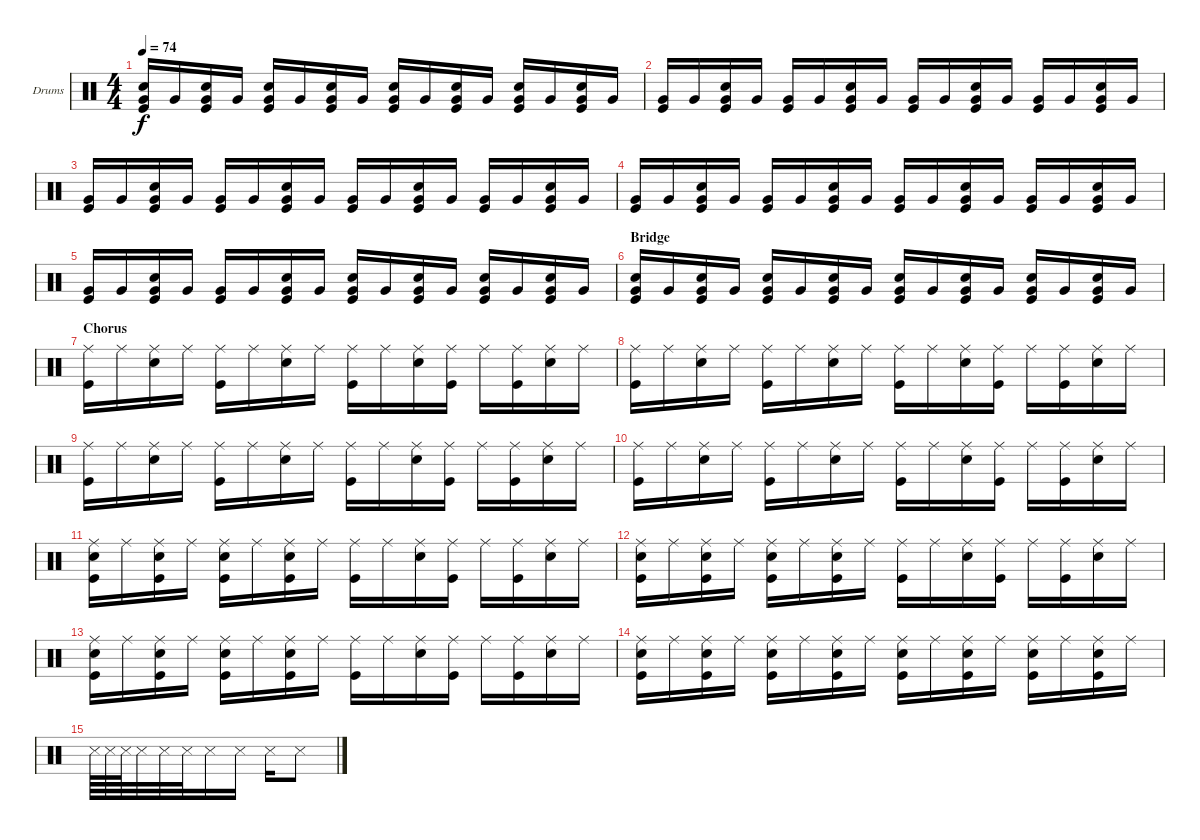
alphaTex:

\bracketExtendMode groupsimilarinstruments
\firstSystemTrackNameOrientation horizontal
\otherSystemsTrackNameOrientation horizontal
\track ("Fabrizio" "Drums") {instrument percussion}
\staff {score}
\articulation defaults
\ts (4 4)
\tempo 74
\clef neutral
\ks c
("Very Low Tom (hit)" "Kick (hit)" "Snare (hit) 2").16{dy f} "Very Low Tom (hit)".16 ("Very Low Tom (hit)" "Kick (hit)" "Snare (hit) 2").16 "Very Low Tom (hit)".16 ("Very Low Tom (hit)" "Kick (hit)" "Snare (hit) 2").16 "Very Low Tom (hit)".16 ("Very Low Tom (hit)" "Kick (hit)" "Snare (hit) 2").16 "Very Low Tom (hit)".16 ("Very Low Tom (hit)" "Kick (hit)" "Snare (hit) 2").16 "Very Low Tom (hit)".16 ("Very Low Tom (hit)" "Kick (hit)" "Snare (hit) 2").16 "Very Low Tom (hit)".16 ("Very Low Tom (hit)" "Kick (hit)" "Snare (hit) 2").16 "Very Low Tom (hit)".16 ("Very Low Tom (hit)" "Kick (hit)" "Snare (hit) 2").16 "Very Low Tom (hit)".16 |
("Very Low Tom (hit)" "Kick (hit)").16 "Very Low Tom (hit)".16 ("Very Low Tom (hit)" "Kick (hit)" "Snare (hit) 2").16 "Very Low Tom (hit)".16 ("Very Low Tom (hit)" "Kick (hit)").16 "Very Low Tom (hit)".16 ("Very Low Tom (hit)" "Kick (hit)" "Snare (hit) 2").16 "Very Low Tom (hit)".16 ("Very Low Tom (hit)" "Kick (hit)").16 "Very Low Tom (hit)".16 ("Very Low Tom (hit)" "Kick (hit)" "Snare (hit) 2").16 "Very Low Tom (hit)".16 ("Very Low Tom (hit)" "Kick (hit)").16 "Very Low Tom (hit)".16 ("Very Low Tom (hit)" "Kick (hit)" "Snare (hit) 2").16 "Very Low Tom (hit)".16 |
("Very Low Tom (hit)" "Kick (hit)").16 "Very Low Tom (hit)".16 ("Very Low Tom (hit)" "Kick (hit)" "Snare (hit) 2").16 "Very Low Tom (hit)".16 ("Very Low Tom (hit)" "Kick (hit)").16 "Very Low Tom (hit)".16 ("Very Low Tom (hit)" "Kick (hit)" "Snare (hit) 2").16 "Very Low Tom (hit)".16 ("Very Low Tom (hit)" "Kick (hit)").16 "Very Low Tom (hit)".16 ("Very Low Tom (hit)" "Kick (hit)" "Snare (hit) 2").16 "Very Low Tom (hit)".16 ("Very Low Tom (hit)" "Kick (hit)").16 "Very Low Tom (hit)".16 ("Very Low Tom (hit)" "Kick (hit)" "Snare (hit) 2").16 "Very Low Tom (hit)".16 |
("Very Low Tom (hit)" "Kick (hit)").16 "Very Low Tom (hit)".16 ("Very Low Tom (hit)" "Kick (hit)" "Snare (hit) 2").16 "Very Low Tom (hit)".16 ("Very Low Tom (hit)" "Kick (hit)").16 "Very Low Tom (hit)".16 ("Very Low Tom (hit)" "Kick (hit)" "Snare (hit) 2").16 "Very Low Tom (hit)".16 ("Very Low Tom (hit)" "Kick (hit)").16 "Very Low Tom (hit)".16 ("Very Low Tom (hit)" "Kick (hit)" "Snare (hit) 2").16 "Very Low Tom (hit)".16 ("Very Low Tom (hit)" "Kick (hit)").16 "Very Low Tom (hit)".16 ("Very Low Tom (hit)" "Kick (hit)" "Snare (hit) 2").16 "Very Low Tom (hit)".16 |
("Very Low Tom (hit)" "Kick (hit)").16 "Very Low Tom (hit)".16 ("Very Low Tom (hit)" "Kick (hit)" "Snare (hit) 2").16 "Very Low Tom (hit)".16 ("Very Low Tom (hit)" "Kick (hit)").16 "Very Low Tom (hit)".16 ("Very Low Tom (hit)" "Kick (hit)" "Snare (hit) 2").16 "Very Low Tom (hit)".16 ("Very Low Tom (hit)" "Kick (hit)" "Snare (hit) 2").16 "Very Low Tom (hit)".16 ("Very Low Tom (hit)" "Kick (hit)" "Snare (hit) 2").16 "Very Low Tom (hit)".16 ("Very Low Tom (hit)" "Kick (hit)" "Snare (hit) 2").16 "Very Low Tom (hit)".16 ("Very Low Tom (hit)" "Kick (hit)" "Snare (hit) 2").16 "Very Low Tom (hit)".16 |
\section ("" "Bridge")
("Very Low Tom (hit)" "Kick (hit)" "Snare (hit) 2").16 "Very Low Tom (hit)".16 ("Very Low Tom (hit)" "Kick (hit)" "Snare (hit) 2").16 "Very Low Tom (hit)".16 ("Very Low Tom (hit)" "Kick (hit)" "Snare (hit) 2").16 "Very Low Tom (hit)".16 ("Very Low Tom (hit)" "Kick (hit)" "Snare (hit) 2").16 "Very Low Tom (hit)".16 ("Very Low Tom (hit)" "Kick (hit)" "Snare (hit) 2").16 "Very Low Tom (hit)".16 ("Very Low Tom (hit)" "Kick (hit)" "Snare (hit) 2").16 "Very Low Tom (hit)".16 ("Very Low Tom (hit)" "Kick (hit)" "Snare (hit) 2").16 "Very Low Tom (hit)".16 ("Very Low Tom (hit)" "Kick (hit)" "Snare (hit) 2").16 "Very Low Tom (hit)".16 |
\section ("" "Chorus")
("Ride (middle)" "Kick (hit)").16 "Ride (middle)".16 ("Ride (middle)" "Snare (hit) 2").16 "Ride (middle)".16 ("Ride (middle)" "Kick (hit)").16 "Ride (middle)".16 ("Ride (middle)" "Snare (hit) 2").16 "Ride (middle)".16 ("Ride (middle)" "Kick (hit)").16 "Ride (middle)".16 ("Ride (middle)" "Snare (hit) 2").16 ("Ride (middle)" "Kick (hit)").16 "Ride (middle)".16 ("Ride (middle)" "Kick (hit)").16 ("Ride (middle)" "Snare (hit) 2").16 "Ride (middle)".16 |
("Ride (middle)" "Kick (hit)").16 "Ride (middle)".16 ("Ride (middle)" "Snare (hit) 2").16 "Ride (middle)".16 ("Ride (middle)" "Kick (hit)").16 "Ride (middle)".16 ("Ride (middle)" "Snare (hit) 2").16 "Ride (middle)".16 ("Ride (middle)" "Kick (hit)").16 "Ride (middle)".16 ("Ride (middle)" "Snare (hit) 2").16 ("Ride (middle)" "Kick (hit)").16 "Ride (middle)".16 ("Ride (middle)" "Kick (hit)").16 ("Ride (middle)" "Snare (hit) 2").16 "Ride (middle)".16 |
("Ride (middle)" "Kick (hit)").16 "Ride (middle)".16 ("Ride (middle)" "Snare (hit) 2").16 "Ride (middle)".16 ("Ride (middle)" "Kick (hit)").16 "Ride (middle)".16 ("Ride (middle)" "Snare (hit) 2").16 "Ride (middle)".16 ("Ride (middle)" "Kick (hit)").16 "Ride (middle)".16 ("Ride (middle)" "Snare (hit) 2").16 ("Ride (middle)" "Kick (hit)").16 "Ride (middle)".16 ("Ride (middle)" "Kick (hit)").16 ("Ride (middle)" "Snare (hit) 2").16 "Ride (middle)".16 |
("Ride (middle)" "Kick (hit)").16 "Ride (middle)".16 ("Ride (middle)" "Snare (hit) 2").16 "Ride (middle)".16 ("Ride (middle)" "Kick (hit)").16 "Ride (middle)".16 ("Ride (middle)" "Snare (hit) 2").16 "Ride (middle)".16 ("Ride (middle)" "Kick (hit)").16 "Ride (middle)".16 ("Ride (middle)" "Snare (hit) 2").16 ("Ride (middle)" "Kick (hit)").16 "Ride (middle)".16 ("Ride (middle)" "Kick (hit)").16 ("Ride (middle)" "Snare (hit) 2").16 "Ride (middle)".16 |
("Ride (middle)" "Kick (hit)" "Snare (hit) 2").16 "Ride (middle)".16 ("Ride (middle)" "Kick (hit)" "Snare (hit) 2").16 "Ride (middle)".16 ("Ride (middle)" "Kick (hit)" "Snare (hit) 2").16 "Ride (middle)".16 ("Ride (middle)" "Kick (hit)" "Snare (hit) 2").16 "Ride (middle)".16 ("Ride (middle)" "Kick (hit)").16 "Ride (middle)".16 ("Ride (middle)" "Snare (hit) 2").16 ("Ride (middle)" "Kick (hit)").16 "Ride (middle)".16 ("Ride (middle)" "Kick (hit)").16 ("Ride (middle)" "Snare (hit) 2").16 "Ride (middle)".16 |
("Ride (middle)" "Kick (hit)" "Snare (hit) 2").16 "Ride (middle)".16 ("Ride (middle)" "Kick (hit)" "Snare (hit) 2").16 "Ride (middle)".16 ("Ride (middle)" "Kick (hit)" "Snare (hit) 2").16 "Ride (middle)".16 ("Ride (middle)" "Kick (hit)" "Snare (hit) 2").16 "Ride (middle)".16 ("Ride (middle)" "Kick (hit)").16 "Ride (middle)".16 ("Ride (middle)" "Snare (hit) 2").16 ("Ride (middle)" "Kick (hit)").16 "Ride (middle)".16 ("Ride (middle)" "Kick (hit)").16 ("Ride (middle)" "Snare (hit) 2").16 "Ride (middle)".16 |
("Ride (middle)" "Kick (hit)" "Snare (hit) 2").16 "Ride (middle)".16 ("Ride (middle)" "Kick (hit)" "Snare (hit) 2").16 "Ride (middle)".16 ("Ride (middle)" "Kick (hit)" "Snare (hit) 2").16 "Ride (middle)".16 ("Ride (middle)" "Kick (hit)" "Snare (hit) 2").16 "Ride (middle)".16 ("Ride (middle)" "Kick (hit)").16 "Ride (middle)".16 ("Ride (middle)" "Snare (hit) 2").16 ("Ride (middle)" "Kick (hit)").16 "Ride (middle)".16 ("Ride (middle)" "Kick (hit)").16 ("Ride (middle)" "Snare (hit) 2").16 "Ride (middle)".16 |
("Ride (middle)" "Kick (hit)" "Snare (hit) 2").16 "Ride (middle)".16 ("Ride (middle)" "Kick (hit)" "Snare (hit) 2").16 "Ride (middle)".16 ("Ride (middle)" "Kick (hit)" "Snare (hit) 2").16 "Ride (middle)".16 ("Ride (middle)" "Kick (hit)" "Snare (hit) 2").16 "Ride (middle)".16 ("Ride (middle)" "Kick (hit)" "Snare (hit) 2").16 "Ride (middle)".16 ("Ride (middle)" "Kick (hit)" "Snare (hit) 2").16 "Ride (middle)".16 ("Ride (middle)" "Kick (hit)" "Snare (hit) 2").16 "Ride (middle)".16 ("Ride (middle)" "Kick (hit)" "Snare (hit) 2").16 "Ride (middle)".16 |
"Snare (side stick) 3".64 "Snare (side stick) 3".64 "Snare (side stick) 3".64 "Snare (side stick) 3".32 "Snare (side stick) 3".32 "Snare (side stick) 3".32 "Snare (side stick) 3".16 "Snare (side stick) 3".16 "Snare (side stick) 3".16 "Snare (side stick) 3".8
